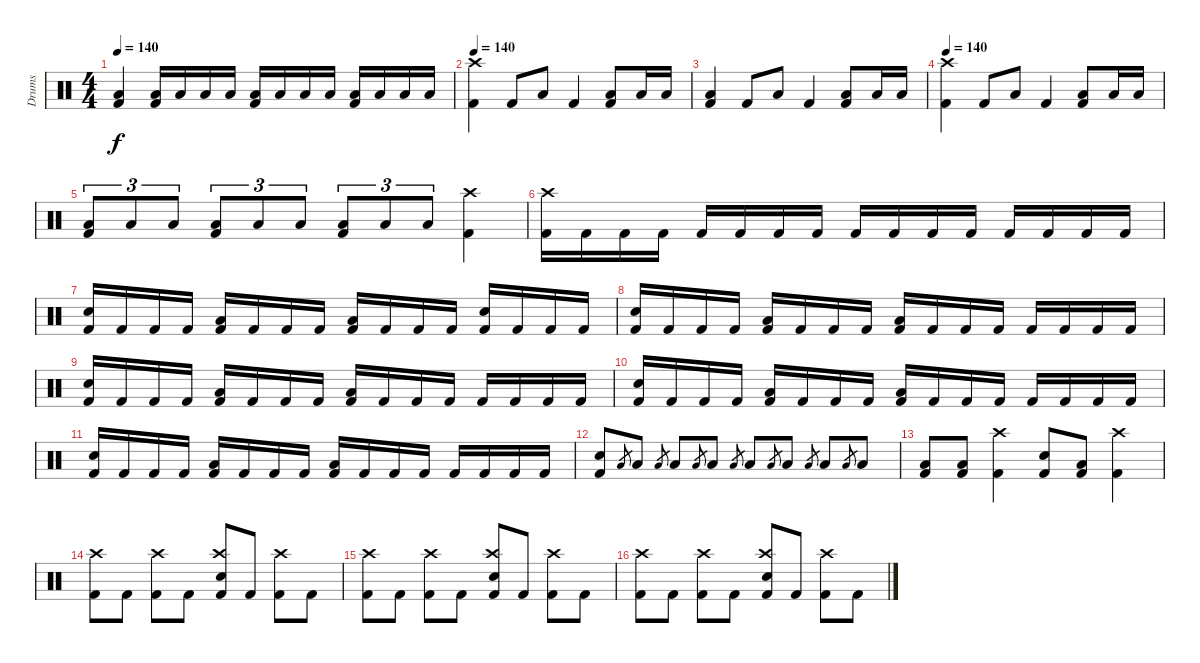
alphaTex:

\track ("Drums" "Drums") {instrument percussion}
\staff {score}
\articulation defaults
\ts (4 4)
\tempo 140
\clef neutral
\ks c
("Low Floor Tom (hit)" "Kick (hit) 2").4{dy f} ("Low Floor Tom (hit)" "Kick (hit) 2").16 "Low Floor Tom (hit)".16 "Low Floor Tom (hit)".16 "Low Floor Tom (hit)".16 ("Low Floor Tom (hit)" "Kick (hit) 2").16 "Low Floor Tom (hit)".16 "Low Floor Tom (hit)".16 "Low Floor Tom (hit)".16 ("Low Floor Tom (hit)" "Kick (hit) 2").16 "Low Floor Tom (hit)".16 "Low Floor Tom (hit)".16 "Low Floor Tom (hit)".16 |
\tempo 140
("Crash high (hit)" "Kick (hit) 2").4 "Kick (hit) 2".8 "Low Floor Tom (hit)".8 "Kick (hit) 2".4 ("Low Floor Tom (hit)" "Kick (hit) 2").8 "Low Floor Tom (hit)".16 "Low Floor Tom (hit)".16 |
("Low Floor Tom (hit)" "Kick (hit) 2").4 "Kick (hit) 2".8 "Low Floor Tom (hit)".8 "Kick (hit) 2".4 ("Low Floor Tom (hit)" "Kick (hit) 2").8 "Low Floor Tom (hit)".16 "Low Floor Tom (hit)".16 |
\tempo 140
("Crash high (hit)" "Kick (hit) 2").4 "Kick (hit) 2".8 "Low Floor Tom (hit)".8 "Kick (hit) 2".4 ("Low Floor Tom (hit)" "Kick (hit) 2").8 "Low Floor Tom (hit)".16 "Low Floor Tom (hit)".16 |
("Low Floor Tom (hit)" "Kick (hit) 2").8{tu (3 2)} "Low Floor Tom (hit)".8{tu (3 2)} "Low Floor Tom (hit)".8{tu (3 2)} ("Low Floor Tom (hit)" "Kick (hit) 2").8{tu (3 2)} "Low Floor Tom (hit)".8{tu (3 2)} "Low Floor Tom (hit)".8{tu (3 2)} ("Low Floor Tom (hit)" "Kick (hit) 2").8{tu (3 2)} "Low Floor Tom (hit)".8{tu (3 2)} "Low Floor Tom (hit)".8{tu (3 2)} ("Crash high (hit)" "Kick (hit) 2").4 |
("Crash high (hit)" "Kick (hit) 2").16 "Kick (hit) 2".16 "Kick (hit) 2".16 "Kick (hit) 2".16 "Kick (hit) 2".16 "Kick (hit) 2".16 "Kick (hit) 2".16 "Kick (hit) 2".16 "Kick (hit) 2".16 "Kick (hit) 2".16 "Kick (hit) 2".16 "Kick (hit) 2".16 "Kick (hit) 2".16 "Kick (hit) 2".16 "Kick (hit) 2".16 "Kick (hit) 2".16 |
("Electric Snare (hit)" "Kick (hit) 2").16 "Kick (hit) 2".16 "Kick (hit) 2".16 "Kick (hit) 2".16 ("Low Floor Tom (hit)" "Kick (hit) 2").16 "Kick (hit) 2".16 "Kick (hit) 2".16 "Kick (hit) 2".16 ("Low Floor Tom (hit)" "Kick (hit) 2").16 "Kick (hit) 2".16 "Kick (hit) 2".16 "Kick (hit) 2".16 ("Electric Snare (hit)" "Kick (hit) 2").16 "Kick (hit) 2".16 "Kick (hit) 2".16 "Kick (hit) 2".16 |
("Electric Snare (hit)" "Kick (hit) 2").16 "Kick (hit) 2".16 "Kick (hit) 2".16 "Kick (hit) 2".16 ("Low Floor Tom (hit)" "Kick (hit) 2").16 "Kick (hit) 2".16 "Kick (hit) 2".16 "Kick (hit) 2".16 ("Low Floor Tom (hit)" "Kick (hit) 2").16 "Kick (hit) 2".16 "Kick (hit) 2".16 "Kick (hit) 2".16 "Kick (hit) 2".16 "Kick (hit) 2".16 "Kick (hit) 2".16 "Kick (hit) 2".16 |
("Electric Snare (hit)" "Kick (hit) 2").16 "Kick (hit) 2".16 "Kick (hit) 2".16 "Kick (hit) 2".16 ("Low Floor Tom (hit)" "Kick (hit) 2").16 "Kick (hit) 2".16 "Kick (hit) 2".16 "Kick (hit) 2".16 ("Low Floor Tom (hit)" "Kick (hit) 2").16 "Kick (hit) 2".16 "Kick (hit) 2".16 "Kick (hit) 2".16 "Kick (hit) 2".16 "Kick (hit) 2".16 "Kick (hit) 2".16 "Kick (hit) 2".16 |
("Electric Snare (hit)" "Kick (hit) 2").16 "Kick (hit) 2".16 "Kick (hit) 2".16 "Kick (hit) 2".16 ("Low Floor Tom (hit)" "Kick (hit) 2").16 "Kick (hit) 2".16 "Kick (hit) 2".16 "Kick (hit) 2".16 ("Low Floor Tom (hit)" "Kick (hit) 2").16 "Kick (hit) 2".16 "Kick (hit) 2".16 "Kick (hit) 2".16 "Kick (hit) 2".16 "Kick (hit) 2".16 "Kick (hit) 2".16 "Kick (hit) 2".16 |
("Electric Snare (hit)" "Kick (hit) 2").16 "Kick (hit) 2".16 "Kick (hit) 2".16 "Kick (hit) 2".16 ("Low Floor Tom (hit)" "Kick (hit) 2").16 "Kick (hit) 2".16 "Kick (hit) 2".16 "Kick (hit) 2".16 ("Low Floor Tom (hit)" "Kick (hit) 2").16 "Kick (hit) 2".16 "Kick (hit) 2".16 "Kick (hit) 2".16 "Kick (hit) 2".16 "Kick (hit) 2".16 "Kick (hit) 2".16 "Kick (hit) 2".16 |
("Electric Snare (hit)" "Kick (hit) 2").8 "Low Floor Tom (hit)".8{gr} "Low Floor Tom (hit)".8 "Low Floor Tom (hit)".8{gr} "Low Floor Tom (hit)".8 "Low Floor Tom (hit)".8{gr} "Low Floor Tom (hit)".8 "Low Floor Tom (hit)".8{gr} "Low Floor Tom (hit)".8 "Low Floor Tom (hit)".8{gr} "Low Floor Tom (hit)".8 "Low Floor Tom (hit)".8{gr} "Low Floor Tom (hit)".8 "Low Floor Tom (hit)".8{gr} "Low Floor Tom (hit)".8 |
("Low Floor Tom (hit)" "Kick (hit) 2").8 ("Low Floor Tom (hit)" "Kick (hit) 2").8 ("Crash high (hit)" "Kick (hit) 2").4 ("Electric Snare (hit)" "Kick (hit) 2").8 ("Low Floor Tom (hit)" "Kick (hit) 2").8 ("Crash high (hit)" "Kick (hit) 2").4 |
("Crash high (hit)" "Kick (hit) 2").8 "Kick (hit) 2".8 ("Crash high (hit)" "Kick (hit) 2").8 "Kick (hit) 2".8 ("Crash high (hit)" "Electric Snare (hit)" "Kick (hit) 2").8 "Kick (hit) 2".8 ("Crash high (hit)" "Kick (hit) 2").8 "Kick (hit) 2".8 |
("Crash high (hit)" "Kick (hit) 2").8 "Kick (hit) 2".8 ("Crash high (hit)" "Kick (hit) 2").8 "Kick (hit) 2".8 ("Crash high (hit)" "Electric Snare (hit)" "Kick (hit) 2").8 "Kick (hit) 2".8 ("Crash high (hit)" "Kick (hit) 2").8 "Kick (hit) 2".8 |
("Crash high (hit)" "Kick (hit) 2").8 "Kick (hit) 2".8 ("Crash high (hit)" "Kick (hit) 2").8 "Kick (hit) 2".8 ("Crash high (hit)" "Electric Snare (hit)" "Kick (hit) 2").8 "Kick (hit) 2".8 ("Crash high (hit)" "Kick (hit) 2").8 "Kick (hit) 2".8
